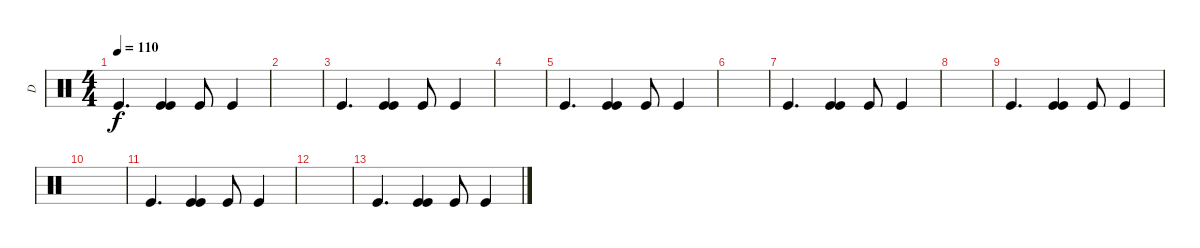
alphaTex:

\track ("D" "D") {instrument percussion}
\staff {score}
\articulation defaults
\ts (4 4)
\tempo 110
\clef neutral
\ks c "Kick (hit)".4{d dy f}
("Kick (hit)" "Kick (hit)").4 "Kick (hit)".8 "Kick (hit)".4 |
|
"Kick (hit)".4{d} ("Kick (hit)" "Kick (hit)").4 "Kick (hit)".8 "Kick (hit)".4 |
|
"Kick (hit)".4{d} ("Kick (hit)" "Kick (hit)").4 "Kick (hit)".8 "Kick (hit)".4 |
|
"Kick (hit)".4{d} ("Kick (hit)" "Kick (hit)").4 "Kick (hit)".8 "Kick (hit)".4 |
|
"Kick (hit)".4{d} ("Kick (hit)" "Kick (hit)").4 "Kick (hit)".8 "Kick (hit)".4 |
|
"Kick (hit)".4{d} ("Kick (hit)" "Kick (hit)").4 "Kick (hit)".8 "Kick (hit)".4 |
|
"Kick (hit)".4{d} ("Kick (hit)" "Kick (hit)").4 "Kick (hit)".8 "Kick (hit)".4
